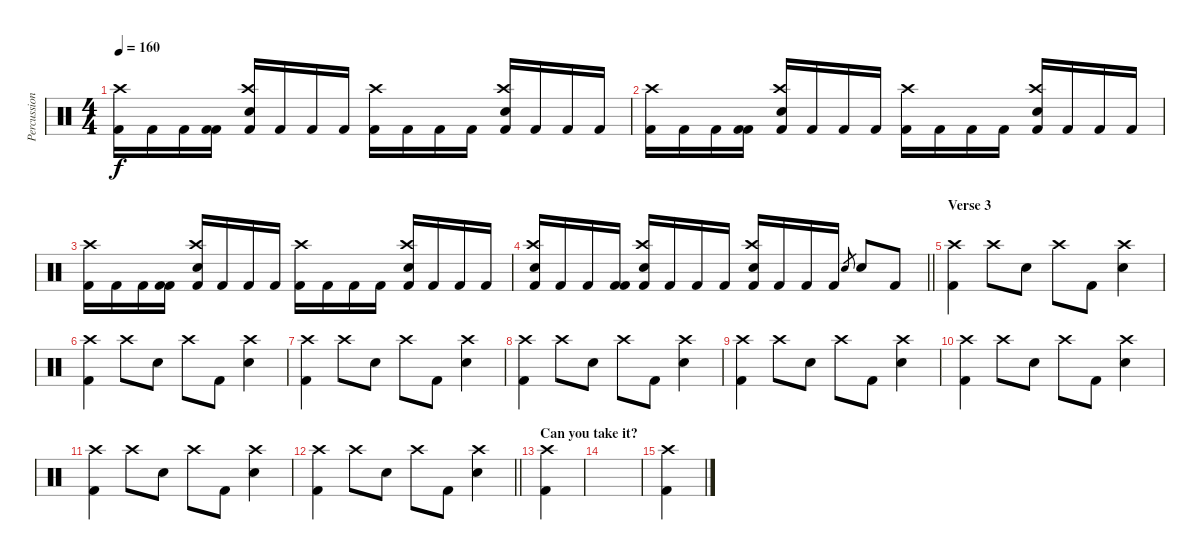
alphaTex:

\track ("Percussion" "Percussion") {instrument percussion}
\staff {score}
\articulation defaults
\ts (4 4)
\tempo 160
\clef neutral
\ks c
("Kick (hit) 2" "Crash high (hit)").16{dy f} "Kick (hit) 2".16 "Kick (hit) 2".16 ("Kick (hit) 2" "Kick (hit) 2").16 ("Kick (hit) 2" "Crash high (hit)" "Snare (hit) 2").16 "Kick (hit) 2".16 "Kick (hit) 2".16 "Kick (hit) 2".16 ("Kick (hit) 2" "Crash high (hit)").16 "Kick (hit) 2".16 "Kick (hit) 2".16 "Kick (hit) 2".16 ("Kick (hit) 2" "Crash high (hit)" "Snare (hit) 2").16 "Kick (hit) 2".16 "Kick (hit) 2".16 "Kick (hit) 2".16 |
("Kick (hit) 2" "Crash high (hit)").16 "Kick (hit) 2".16 "Kick (hit) 2".16 ("Kick (hit) 2" "Kick (hit) 2").16 ("Kick (hit) 2" "Crash high (hit)" "Snare (hit) 2").16 "Kick (hit) 2".16 "Kick (hit) 2".16 "Kick (hit) 2".16 ("Kick (hit) 2" "Crash high (hit)").16 "Kick (hit) 2".16 "Kick (hit) 2".16 "Kick (hit) 2".16 ("Kick (hit) 2" "Crash high (hit)" "Snare (hit) 2").16 "Kick (hit) 2".16 "Kick (hit) 2".16 "Kick (hit) 2".16 |
("Kick (hit) 2" "Crash high (hit)").16 "Kick (hit) 2".16 "Kick (hit) 2".16 ("Kick (hit) 2" "Kick (hit) 2").16 ("Kick (hit) 2" "Crash high (hit)" "Snare (hit) 2").16 "Kick (hit) 2".16 "Kick (hit) 2".16 "Kick (hit) 2".16 ("Kick (hit) 2" "Crash high (hit)").16 "Kick (hit) 2".16 "Kick (hit) 2".16 "Kick (hit) 2".16 ("Kick (hit) 2" "Crash high (hit)" "Snare (hit) 2").16 "Kick (hit) 2".16 "Kick (hit) 2".16 "Kick (hit) 2".16 |
\barLineRight lightlight
("Kick (hit) 2" "Crash high (hit)" "Snare (hit) 2").16 "Kick (hit) 2".16 "Kick (hit) 2".16 ("Kick (hit) 2" "Kick (hit) 2").16 ("Kick (hit) 2" "Crash high (hit)" "Snare (hit) 2").16 "Kick (hit) 2".16 "Kick (hit) 2".16 "Kick (hit) 2".16 ("Kick (hit) 2" "Crash high (hit)" "Snare (hit) 2").16 "Kick (hit) 2".16 "Kick (hit) 2".16 "Kick (hit) 2".16 "Snare (hit) 2".8{gr} "Snare (hit) 2".8 "Kick (hit) 2".8 |
\section ("" "Verse 3")
("Kick (hit) 2" "Crash high (hit)").4 "Crash high (hit)".8 "Snare (hit) 2".8 "Crash high (hit)".8 "Kick (hit) 2".8 ("Snare (hit) 2" "Crash high (hit)").4 |
("Kick (hit) 2" "Crash high (hit)").4 "Crash high (hit)".8 "Snare (hit) 2".8 "Crash high (hit)".8 "Kick (hit) 2".8 ("Snare (hit) 2" "Crash high (hit)").4 |
("Kick (hit) 2" "Crash high (hit)").4 "Crash high (hit)".8 "Snare (hit) 2".8 "Crash high (hit)".8 "Kick (hit) 2".8 ("Snare (hit) 2" "Crash high (hit)").4 |
("Kick (hit) 2" "Crash high (hit)").4 "Crash high (hit)".8 "Snare (hit) 2".8 "Crash high (hit)".8 "Kick (hit) 2".8 ("Snare (hit) 2" "Crash high (hit)").4 |
("Kick (hit) 2" "Crash high (hit)").4 "Crash high (hit)".8 "Snare (hit) 2".8 "Crash high (hit)".8 "Kick (hit) 2".8 ("Snare (hit) 2" "Crash high (hit)").4 |
("Kick (hit) 2" "Crash high (hit)").4 "Crash high (hit)".8 "Snare (hit) 2".8 "Crash high (hit)".8 "Kick (hit) 2".8 ("Snare (hit) 2" "Crash high (hit)").4 |
("Kick (hit) 2" "Crash high (hit)").4 "Crash high (hit)".8 "Snare (hit) 2".8 "Crash high (hit)".8 "Kick (hit) 2".8 ("Snare (hit) 2" "Crash high (hit)").4 |
\barLineRight lightlight
("Kick (hit) 2" "Crash high (hit)").4 "Crash high (hit)".8 "Snare (hit) 2".8 "Crash high (hit)".8 "Kick (hit) 2".8 ("Snare (hit) 2" "Crash high (hit)").4 |
\section ("" "Can you take it?")
("Kick (hit) 2" "Crash high (hit)").4 |
|
("Kick (hit) 2" "Crash high (hit)").4
